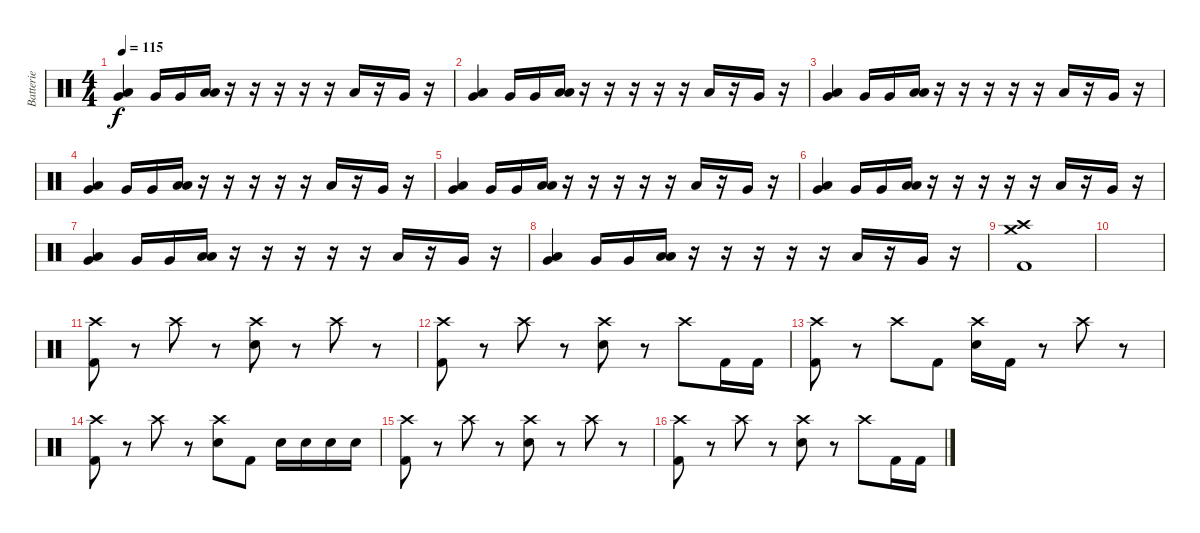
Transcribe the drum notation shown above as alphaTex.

\track ("Batterie" "Batterie") {instrument percussion}
\staff {score}
\articulation defaults
\ts (4 4)
\tempo 115
\clef neutral
\ks c
("Low Floor Tom (hit)" "Very Low Tom (hit)").4{dy f} "Very Low Tom (hit)".16 "Very Low Tom (hit)".16 ("Low Floor Tom (hit)" "Low Tom (hit)").16 r.16 r.16 r.16 r.16 r.16 "Low Tom (hit)".16 r.16 "Very Low Tom (hit)".16 r.16 |
("Low Floor Tom (hit)" "Very Low Tom (hit)").4 "Very Low Tom (hit)".16 "Very Low Tom (hit)".16 ("Low Floor Tom (hit)" "Low Tom (hit)").16 r.16 r.16 r.16 r.16 r.16 "Low Tom (hit)".16 r.16 "Very Low Tom (hit)".16 r.16 |
("Low Floor Tom (hit)" "Very Low Tom (hit)").4 "Very Low Tom (hit)".16 "Very Low Tom (hit)".16 ("Low Floor Tom (hit)" "Low Tom (hit)").16 r.16 r.16 r.16 r.16 r.16 "Low Tom (hit)".16 r.16 "Very Low Tom (hit)".16 r.16 |
("Low Floor Tom (hit)" "Very Low Tom (hit)").4 "Very Low Tom (hit)".16 "Very Low Tom (hit)".16 ("Low Floor Tom (hit)" "Low Tom (hit)").16 r.16 r.16 r.16 r.16 r.16 "Low Tom (hit)".16 r.16 "Very Low Tom (hit)".16 r.16 |
("Low Floor Tom (hit)" "Very Low Tom (hit)").4 "Very Low Tom (hit)".16 "Very Low Tom (hit)".16 ("Low Floor Tom (hit)" "Low Tom (hit)").16 r.16 r.16 r.16 r.16 r.16 "Low Tom (hit)".16 r.16 "Very Low Tom (hit)".16 r.16 |
("Low Floor Tom (hit)" "Very Low Tom (hit)").4 "Very Low Tom (hit)".16 "Very Low Tom (hit)".16 ("Low Floor Tom (hit)" "Low Tom (hit)").16 r.16 r.16 r.16 r.16 r.16 "Low Tom (hit)".16 r.16 "Very Low Tom (hit)".16 r.16 |
("Low Floor Tom (hit)" "Very Low Tom (hit)").4 "Very Low Tom (hit)".16 "Very Low Tom (hit)".16 ("Low Floor Tom (hit)" "Low Tom (hit)").16 r.16 r.16 r.16 r.16 r.16 "Low Tom (hit)".16 r.16 "Very Low Tom (hit)".16 r.16 |
("Low Floor Tom (hit)" "Very Low Tom (hit)").4 "Very Low Tom (hit)".16 "Very Low Tom (hit)".16 ("Low Floor Tom (hit)" "Low Tom (hit)").16 r.16 r.16 r.16 r.16 r.16 "Low Tom (hit)".16 r.16 "Very Low Tom (hit)".16 r.16 |
("Kick (hit) 2" "Crash medium (hit)" "Crash high (hit)").1 |
|
("Kick (hit) 2" "Crash high (hit)").8 r.8 "Crash high (hit)".8 r.8 ("Electric Snare (hit)" "Crash high (hit)").8 r.8 "Crash high (hit)".8 r.8 |
("Kick (hit) 2" "Crash high (hit)").8 r.8 "Crash high (hit)".8 r.8 ("Electric Snare (hit)" "Crash high (hit)").8 r.8 "Crash high (hit)".8 "Kick (hit) 2".16 "Kick (hit) 2".16 |
("Kick (hit) 2" "Crash high (hit)").8 r.8 "Crash high (hit)".8 "Kick (hit) 2".8 ("Electric Snare (hit)" "Crash high (hit)").16 "Kick (hit) 2".16 r.8 "Crash high (hit)".8 r.8 |
("Kick (hit) 2" "Crash high (hit)").8 r.8 "Crash high (hit)".8 r.8 ("Electric Snare (hit)" "Crash high (hit)").8 "Kick (hit) 2".8 "Electric Snare (hit)".16 "Electric Snare (hit)".16 "Electric Snare (hit)".16 "Electric Snare (hit)".16 |
("Kick (hit) 2" "Crash high (hit)").8 r.8 "Crash high (hit)".8 r.8 ("Electric Snare (hit)" "Crash high (hit)").8 r.8 "Crash high (hit)".8 r.8 |
("Kick (hit) 2" "Crash high (hit)").8 r.8 "Crash high (hit)".8 r.8 ("Electric Snare (hit)" "Crash high (hit)").8 r.8 "Crash high (hit)".8 "Kick (hit) 2".16 "Kick (hit) 2".16
